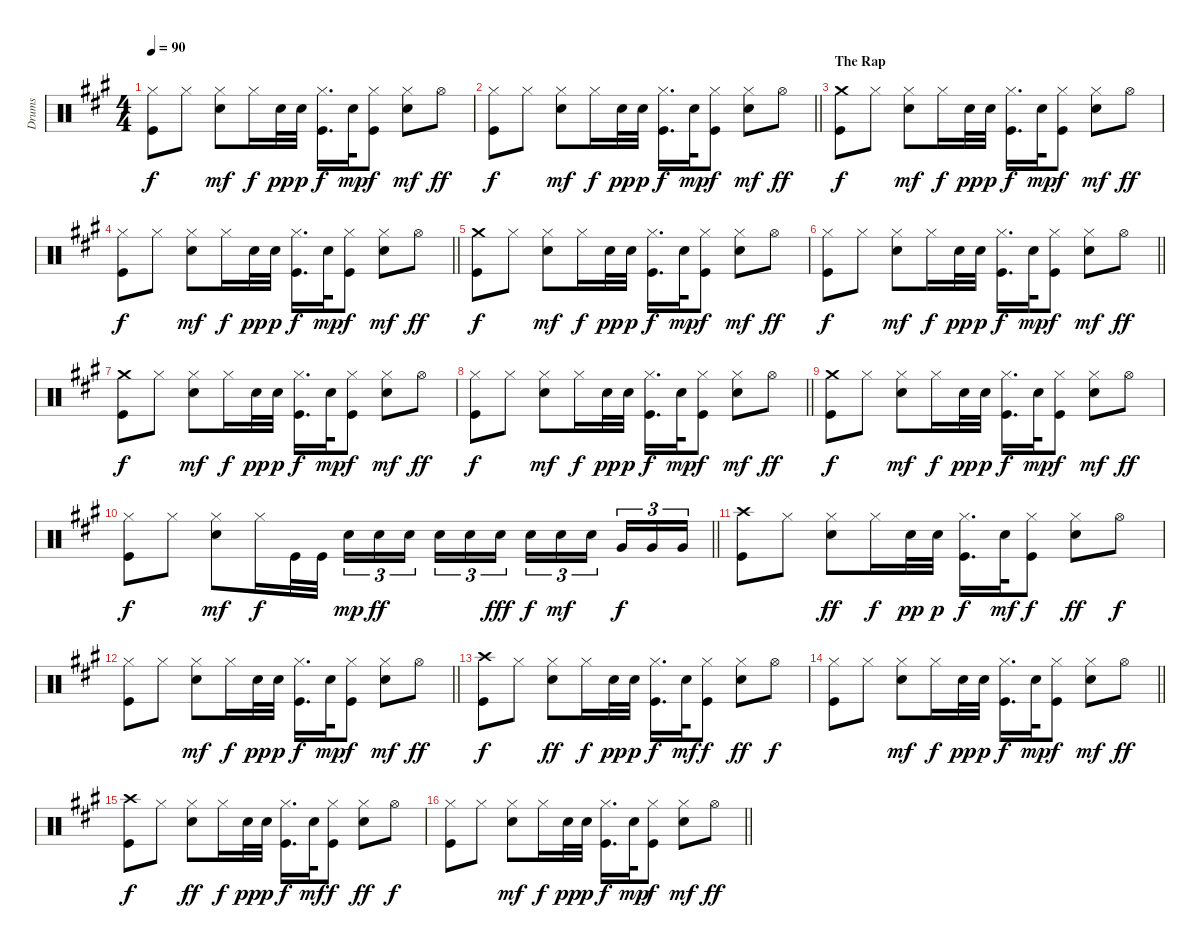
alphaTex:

\track ("Drums" "Drums") {instrument percussion}
\staff {score}
\articulation defaults
\ts (4 4)
\tempo 90
\clef neutral
\ks a
("Hi-Hat (closed)" "Kick (hit)").8{dy f} "Hi-Hat (closed)".8 ("Hi-Hat (closed)" "Snare (hit) 2").8{dy mf} "Hi-Hat (closed)".16{dy f} "Snare (hit) 2".32{dy pp} "Snare (hit) 2".32{dy p} ("Hi-Hat (closed)" "Kick (hit)").16{d dy f} "Snare (hit) 2".32{dy mp} ("Hi-Hat (closed)" "Kick (hit)").8{dy f} ("Hi-Hat (closed)" "Snare (hit) 2").8{dy mf} "Hi-Hat (open)".8{dy ff} |
\barLineRight lightlight
("Hi-Hat (closed)" "Kick (hit)").8{dy f} "Hi-Hat (closed)".8 ("Hi-Hat (closed)" "Snare (hit) 2").8{dy mf} "Hi-Hat (closed)".16{dy f} "Snare (hit) 2".32{dy pp} "Snare (hit) 2".32{dy p} ("Hi-Hat (closed)" "Kick (hit)").16{d dy f} "Snare (hit) 2".32{dy mp} ("Hi-Hat (closed)" "Kick (hit)").8{dy f} ("Hi-Hat (closed)" "Snare (hit) 2").8{dy mf} "Hi-Hat (open)".8{dy ff} |
\section ("" "The Rap")
("Crash medium (hit)" "Kick (hit)").8{dy f} "Hi-Hat (closed)".8 ("Hi-Hat (closed)" "Snare (hit) 2").8{dy mf} "Hi-Hat (closed)".16{dy f} "Snare (hit) 2".32{dy pp} "Snare (hit) 2".32{dy p} ("Hi-Hat (closed)" "Kick (hit)").16{d dy f} "Snare (hit) 2".32{dy mp} ("Hi-Hat (closed)" "Kick (hit)").8{dy f} ("Hi-Hat (closed)" "Snare (hit) 2").8{dy mf} "Hi-Hat (open)".8{dy ff} |
\barLineRight lightlight
("Hi-Hat (closed)" "Kick (hit)").8{dy f} "Hi-Hat (closed)".8 ("Hi-Hat (closed)" "Snare (hit) 2").8{dy mf} "Hi-Hat (closed)".16{dy f} "Snare (hit) 2".32{dy pp} "Snare (hit) 2".32{dy p} ("Hi-Hat (closed)" "Kick (hit)").16{d dy f} "Snare (hit) 2".32{dy mp} ("Hi-Hat (closed)" "Kick (hit)").8{dy f} ("Hi-Hat (closed)" "Snare (hit) 2").8{dy mf} "Hi-Hat (open)".8{dy ff} |
("Crash medium (hit)" "Kick (hit)").8{dy f} "Hi-Hat (closed)".8 ("Hi-Hat (closed)" "Snare (hit) 2").8{dy mf} "Hi-Hat (closed)".16{dy f} "Snare (hit) 2".32{dy pp} "Snare (hit) 2".32{dy p} ("Hi-Hat (closed)" "Kick (hit)").16{d dy f} "Snare (hit) 2".32{dy mp} ("Hi-Hat (closed)" "Kick (hit)").8{dy f} ("Hi-Hat (closed)" "Snare (hit) 2").8{dy mf} "Hi-Hat (open)".8{dy ff} |
\barLineRight lightlight
("Hi-Hat (closed)" "Kick (hit)").8{dy f} "Hi-Hat (closed)".8 ("Hi-Hat (closed)" "Snare (hit) 2").8{dy mf} "Hi-Hat (closed)".16{dy f} "Snare (hit) 2".32{dy pp} "Snare (hit) 2".32{dy p} ("Hi-Hat (closed)" "Kick (hit)").16{d dy f} "Snare (hit) 2".32{dy mp} ("Hi-Hat (closed)" "Kick (hit)").8{dy f} ("Hi-Hat (closed)" "Snare (hit) 2").8{dy mf} "Hi-Hat (open)".8{dy ff} |
("Crash medium (hit)" "Kick (hit)").8{dy f} "Hi-Hat (closed)".8 ("Hi-Hat (closed)" "Snare (hit) 2").8{dy mf} "Hi-Hat (closed)".16{dy f} "Snare (hit) 2".32{dy pp} "Snare (hit) 2".32{dy p} ("Hi-Hat (closed)" "Kick (hit)").16{d dy f} "Snare (hit) 2".32{dy mp} ("Hi-Hat (closed)" "Kick (hit)").8{dy f} ("Hi-Hat (closed)" "Snare (hit) 2").8{dy mf} "Hi-Hat (open)".8{dy ff} |
\barLineRight lightlight
("Hi-Hat (closed)" "Kick (hit)").8{dy f} "Hi-Hat (closed)".8 ("Hi-Hat (closed)" "Snare (hit) 2").8{dy mf} "Hi-Hat (closed)".16{dy f} "Snare (hit) 2".32{dy pp} "Snare (hit) 2".32{dy p} ("Hi-Hat (closed)" "Kick (hit)").16{d dy f} "Snare (hit) 2".32{dy mp} ("Hi-Hat (closed)" "Kick (hit)").8{dy f} ("Hi-Hat (closed)" "Snare (hit) 2").8{dy mf} "Hi-Hat (open)".8{dy ff} |
("Crash medium (hit)" "Kick (hit)").8{dy f} "Hi-Hat (closed)".8 ("Hi-Hat (closed)" "Snare (hit) 2").8{dy mf} "Hi-Hat (closed)".16{dy f} "Snare (hit) 2".32{dy pp} "Snare (hit) 2".32{dy p} ("Hi-Hat (closed)" "Kick (hit)").16{d dy f} "Snare (hit) 2".32{dy mp} ("Hi-Hat (closed)" "Kick (hit)").8{dy f} ("Hi-Hat (closed)" "Snare (hit) 2").8{dy mf} "Hi-Hat (open)".8{dy ff} |
\barLineRight lightlight
("Hi-Hat (closed)" "Kick (hit)").8{dy f} "Hi-Hat (closed)".8 ("Hi-Hat (closed)" "Snare (hit) 2").8{dy mf} "Hi-Hat (closed)".16{dy f} "Kick (hit)".32 "Kick (hit)".32 "Snare (hit) 2".16{tu (3 2) dy mp} "Snare (hit) 2".16{tu (3 2) dy ff} "Snare (hit) 2".16{tu (3 2) beam splitsecondary} "Snare (hit) 2".16{tu (3 2)} "Snare (hit) 2".16{tu (3 2)} "Snare (hit) 2".16{tu (3 2) dy fff} "Snare (hit) 2".16{tu (3 2) dy f} "Snare (hit) 2".16{tu (3 2) dy mf} "Snare (hit) 2".16{tu (3 2) beam splitsecondary} "Very Low Tom (hit)".16{tu (3 2) dy f} "Very Low Tom (hit)".16{tu (3 2)} "Very Low Tom (hit)".16{tu (3 2)} |
("Crash high (hit)" "Kick (hit)").8 "Hi-Hat (closed)".8 ("Hi-Hat (closed)" "Snare (hit) 2").8{dy ff} "Hi-Hat (closed)".16{dy f} "Snare (hit) 2".32{dy pp} "Snare (hit) 2".32{dy p} ("Hi-Hat (closed)" "Kick (hit)").16{d dy f} "Snare (hit) 2".32{dy mf} ("Hi-Hat (closed)" "Kick (hit)").8{dy f} ("Hi-Hat (closed)" "Snare (hit) 2").8{dy ff} "Hi-Hat (open)".8{dy f} |
\barLineRight lightlight
("Hi-Hat (closed)" "Kick (hit)").8 "Hi-Hat (closed)".8 ("Hi-Hat (closed)" "Snare (hit) 2").8{dy mf} "Hi-Hat (closed)".16{dy f} "Snare (hit) 2".32{dy pp} "Snare (hit) 2".32{dy p} ("Hi-Hat (closed)" "Kick (hit)").16{d dy f} "Snare (hit) 2".32{dy mp} ("Hi-Hat (closed)" "Kick (hit)").8{dy f} ("Hi-Hat (closed)" "Snare (hit) 2").8{dy mf} "Hi-Hat (open)".8{dy ff} |
("Crash high (hit)" "Kick (hit)").8{dy f} "Hi-Hat (closed)".8 ("Hi-Hat (closed)" "Snare (hit) 2").8{dy ff} "Hi-Hat (closed)".16{dy f} "Snare (hit) 2".32{dy pp} "Snare (hit) 2".32{dy p} ("Hi-Hat (closed)" "Kick (hit)").16{d dy f} "Snare (hit) 2".32{dy mf} ("Hi-Hat (closed)" "Kick (hit)").8{dy f} ("Hi-Hat (closed)" "Snare (hit) 2").8{dy ff} "Hi-Hat (open)".8{dy f} |
\barLineRight lightlight
("Hi-Hat (closed)" "Kick (hit)").8 "Hi-Hat (closed)".8 ("Hi-Hat (closed)" "Snare (hit) 2").8{dy mf} "Hi-Hat (closed)".16{dy f} "Snare (hit) 2".32{dy pp} "Snare (hit) 2".32{dy p} ("Hi-Hat (closed)" "Kick (hit)").16{d dy f} "Snare (hit) 2".32{dy mp} ("Hi-Hat (closed)" "Kick (hit)").8{dy f} ("Hi-Hat (closed)" "Snare (hit) 2").8{dy mf} "Hi-Hat (open)".8{dy ff} |
("Crash high (hit)" "Kick (hit)").8{dy f} "Hi-Hat (closed)".8 ("Hi-Hat (closed)" "Snare (hit) 2").8{dy ff} "Hi-Hat (closed)".16{dy f} "Snare (hit) 2".32{dy pp} "Snare (hit) 2".32{dy p} ("Hi-Hat (closed)" "Kick (hit)").16{d dy f} "Snare (hit) 2".32{dy mf} ("Hi-Hat (closed)" "Kick (hit)").8{dy f} ("Hi-Hat (closed)" "Snare (hit) 2").8{dy ff} "Hi-Hat (open)".8{dy f} |
\barLineRight lightlight
("Hi-Hat (closed)" "Kick (hit)").8 "Hi-Hat (closed)".8 ("Hi-Hat (closed)" "Snare (hit) 2").8{dy mf} "Hi-Hat (closed)".16{dy f} "Snare (hit) 2".32{dy pp} "Snare (hit) 2".32{dy p} ("Hi-Hat (closed)" "Kick (hit)").16{d dy f} "Snare (hit) 2".32{dy mp} ("Hi-Hat (closed)" "Kick (hit)").8{dy f} ("Hi-Hat (closed)" "Snare (hit) 2").8{dy mf} "Hi-Hat (open)".8{dy ff}
